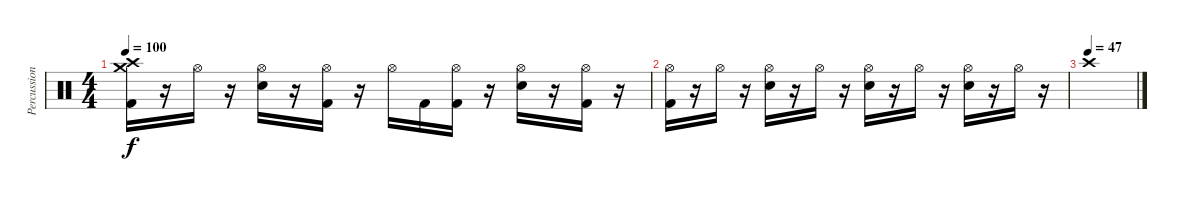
\track ("Percussion" "Percussion") {instrument percussion}
\staff {score}
\articulation defaults
\ts (4 4)
\tempo 100
\clef neutral
\ks c
("Kick (hit) 2" "Crash medium (hit)" "Crash high (hit)").16{dy f} r.16 "Hi-Hat (open)".16 r.16 ("Snare (hit) 2" "Hi-Hat (open)").16 r.16 ("Kick (hit) 2" "Hi-Hat (open)").16 r.16 "Hi-Hat (open)".16 "Kick (hit) 2".16 ("Kick (hit) 2" "Hi-Hat (open)").16 r.16 ("Snare (hit) 2" "Hi-Hat (open)").16 r.16 ("Kick (hit) 2" "Hi-Hat (open)").16 r.16 |
("Kick (hit) 2" "Hi-Hat (open)").16 r.16 "Hi-Hat (open)".16 r.16 ("Snare (hit) 2" "Hi-Hat (open)").16 r.16 "Hi-Hat (open)".16 r.16 ("Snare (hit) 2" "Hi-Hat (open)").16 r.16 "Hi-Hat (open)".16 r.16 ("Snare (hit) 2" "Hi-Hat (open)").16 r.16 "Hi-Hat (open)".16 r.16 |
\tempo (47)
"Crash high (hit)".1
